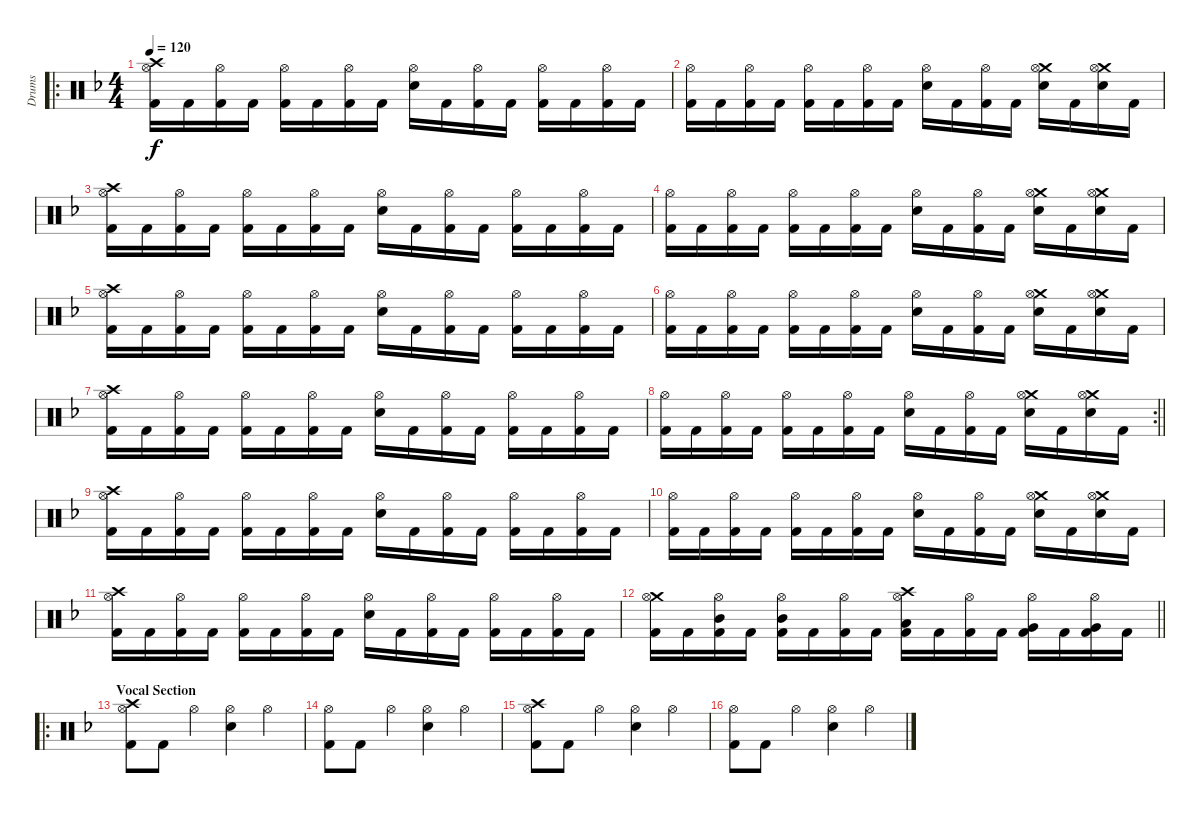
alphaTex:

\track ("Drums" "Drums") {instrument percussion}
\staff {score}
\articulation defaults
\ro
\ts (4 4)
\tempo 120
\clef neutral
\ks dminor
("Crash high (hit)" "Hi-Hat (open)" "Kick (hit) 2").16{dy f} "Kick (hit) 2".16 ("Hi-Hat (open)" "Kick (hit) 2").16 "Kick (hit) 2".16 ("Hi-Hat (open)" "Kick (hit) 2").16 "Kick (hit) 2".16 ("Hi-Hat (open)" "Kick (hit) 2").16 "Kick (hit) 2".16 ("Hi-Hat (open)" "Snare (hit) 2").16 "Kick (hit) 2".16 ("Hi-Hat (open)" "Kick (hit) 2").16 "Kick (hit) 2".16 ("Hi-Hat (open)" "Kick (hit) 2").16 "Kick (hit) 2".16 ("Hi-Hat (open)" "Kick (hit) 2").16 "Kick (hit) 2".16 |
("Hi-Hat (open)" "Kick (hit) 2").16 "Kick (hit) 2".16 ("Hi-Hat (open)" "Kick (hit) 2").16 "Kick (hit) 2".16 ("Hi-Hat (open)" "Kick (hit) 2").16 "Kick (hit) 2".16 ("Hi-Hat (open)" "Kick (hit) 2").16 "Kick (hit) 2".16 ("Hi-Hat (open)" "Snare (hit) 2").16 "Kick (hit) 2".16 ("Hi-Hat (open)" "Kick (hit) 2").16 "Kick (hit) 2".16 ("Crash medium (hit)" "Hi-Hat (open)" "Snare (hit) 2").16 "Kick (hit) 2".16 ("Crash medium (hit)" "Hi-Hat (open)" "Snare (hit) 2").16 "Kick (hit) 2".16 |
("Crash high (hit)" "Hi-Hat (open)" "Kick (hit) 2").16 "Kick (hit) 2".16 ("Hi-Hat (open)" "Kick (hit) 2").16 "Kick (hit) 2".16 ("Hi-Hat (open)" "Kick (hit) 2").16 "Kick (hit) 2".16 ("Hi-Hat (open)" "Kick (hit) 2").16 "Kick (hit) 2".16 ("Hi-Hat (open)" "Snare (hit) 2").16 "Kick (hit) 2".16 ("Hi-Hat (open)" "Kick (hit) 2").16 "Kick (hit) 2".16 ("Hi-Hat (open)" "Kick (hit) 2").16 "Kick (hit) 2".16 ("Hi-Hat (open)" "Kick (hit) 2").16 "Kick (hit) 2".16 |
("Hi-Hat (open)" "Kick (hit) 2").16 "Kick (hit) 2".16 ("Hi-Hat (open)" "Kick (hit) 2").16 "Kick (hit) 2".16 ("Hi-Hat (open)" "Kick (hit) 2").16 "Kick (hit) 2".16 ("Hi-Hat (open)" "Kick (hit) 2").16 "Kick (hit) 2".16 ("Hi-Hat (open)" "Snare (hit) 2").16 "Kick (hit) 2".16 ("Hi-Hat (open)" "Kick (hit) 2").16 "Kick (hit) 2".16 ("Crash medium (hit)" "Hi-Hat (open)" "Snare (hit) 2").16 "Kick (hit) 2".16 ("Crash medium (hit)" "Hi-Hat (open)" "Snare (hit) 2").16 "Kick (hit) 2".16 |
("Crash high (hit)" "Hi-Hat (open)" "Kick (hit) 2").16 "Kick (hit) 2".16 ("Hi-Hat (open)" "Kick (hit) 2").16 "Kick (hit) 2".16 ("Hi-Hat (open)" "Kick (hit) 2").16 "Kick (hit) 2".16 ("Hi-Hat (open)" "Kick (hit) 2").16 "Kick (hit) 2".16 ("Hi-Hat (open)" "Snare (hit) 2").16 "Kick (hit) 2".16 ("Hi-Hat (open)" "Kick (hit) 2").16 "Kick (hit) 2".16 ("Hi-Hat (open)" "Kick (hit) 2").16 "Kick (hit) 2".16 ("Hi-Hat (open)" "Kick (hit) 2").16 "Kick (hit) 2".16 |
("Hi-Hat (open)" "Kick (hit) 2").16 "Kick (hit) 2".16 ("Hi-Hat (open)" "Kick (hit) 2").16 "Kick (hit) 2".16 ("Hi-Hat (open)" "Kick (hit) 2").16 "Kick (hit) 2".16 ("Hi-Hat (open)" "Kick (hit) 2").16 "Kick (hit) 2".16 ("Hi-Hat (open)" "Snare (hit) 2").16 "Kick (hit) 2".16 ("Hi-Hat (open)" "Kick (hit) 2").16 "Kick (hit) 2".16 ("Crash medium (hit)" "Hi-Hat (open)" "Snare (hit) 2").16 "Kick (hit) 2".16 ("Crash medium (hit)" "Hi-Hat (open)" "Snare (hit) 2").16 "Kick (hit) 2".16 |
("Crash high (hit)" "Hi-Hat (open)" "Kick (hit) 2").16 "Kick (hit) 2".16 ("Hi-Hat (open)" "Kick (hit) 2").16 "Kick (hit) 2".16 ("Hi-Hat (open)" "Kick (hit) 2").16 "Kick (hit) 2".16 ("Hi-Hat (open)" "Kick (hit) 2").16 "Kick (hit) 2".16 ("Hi-Hat (open)" "Snare (hit) 2").16 "Kick (hit) 2".16 ("Hi-Hat (open)" "Kick (hit) 2").16 "Kick (hit) 2".16 ("Hi-Hat (open)" "Kick (hit) 2").16 "Kick (hit) 2".16 ("Hi-Hat (open)" "Kick (hit) 2").16 "Kick (hit) 2".16 |
\rc 2
\barLineRight lightlight
("Hi-Hat (open)" "Kick (hit) 2").16 "Kick (hit) 2".16 ("Hi-Hat (open)" "Kick (hit) 2").16 "Kick (hit) 2".16 ("Hi-Hat (open)" "Kick (hit) 2").16 "Kick (hit) 2".16 ("Hi-Hat (open)" "Kick (hit) 2").16 "Kick (hit) 2".16 ("Hi-Hat (open)" "Snare (hit) 2").16 "Kick (hit) 2".16 ("Hi-Hat (open)" "Kick (hit) 2").16 "Kick (hit) 2".16 ("Crash medium (hit)" "Hi-Hat (open)" "Snare (hit) 2").16 "Kick (hit) 2".16 ("Crash medium (hit)" "Hi-Hat (open)" "Snare (hit) 2").16 "Kick (hit) 2".16 |
("Crash high (hit)" "Hi-Hat (open)" "Kick (hit) 2").16 "Kick (hit) 2".16 ("Hi-Hat (open)" "Kick (hit) 2").16 "Kick (hit) 2".16 ("Hi-Hat (open)" "Kick (hit) 2").16 "Kick (hit) 2".16 ("Hi-Hat (open)" "Kick (hit) 2").16 "Kick (hit) 2".16 ("Hi-Hat (open)" "Snare (hit) 2").16 "Kick (hit) 2".16 ("Hi-Hat (open)" "Kick (hit) 2").16 "Kick (hit) 2".16 ("Hi-Hat (open)" "Kick (hit) 2").16 "Kick (hit) 2".16 ("Hi-Hat (open)" "Kick (hit) 2").16 "Kick (hit) 2".16 |
("Hi-Hat (open)" "Kick (hit) 2").16 "Kick (hit) 2".16 ("Hi-Hat (open)" "Kick (hit) 2").16 "Kick (hit) 2".16 ("Hi-Hat (open)" "Kick (hit) 2").16 "Kick (hit) 2".16 ("Hi-Hat (open)" "Kick (hit) 2").16 "Kick (hit) 2".16 ("Hi-Hat (open)" "Snare (hit) 2").16 "Kick (hit) 2".16 ("Hi-Hat (open)" "Kick (hit) 2").16 "Kick (hit) 2".16 ("Crash medium (hit)" "Hi-Hat (open)" "Snare (hit) 2").16 "Kick (hit) 2".16 ("Crash medium (hit)" "Hi-Hat (open)" "Snare (hit) 2").16 "Kick (hit) 2".16 |
("Crash high (hit)" "Hi-Hat (open)" "Kick (hit) 2").16 "Kick (hit) 2".16 ("Hi-Hat (open)" "Kick (hit) 2").16 "Kick (hit) 2".16 ("Hi-Hat (open)" "Kick (hit) 2").16 "Kick (hit) 2".16 ("Hi-Hat (open)" "Kick (hit) 2").16 "Kick (hit) 2".16 ("Hi-Hat (open)" "Snare (hit) 2").16 "Kick (hit) 2".16 ("Hi-Hat (open)" "Kick (hit) 2").16 "Kick (hit) 2".16 ("Hi-Hat (open)" "Kick (hit) 2").16 "Kick (hit) 2".16 ("Hi-Hat (open)" "Kick (hit) 2").16 "Kick (hit) 2".16 |
\barLineRight lightlight
("Crash medium (hit)" "Hi-Hat (open)" "Kick (hit) 2").16 "Kick (hit) 2".16 ("Hi-Hat (open)" "Mid Tom (hit)" "Kick (hit) 2").16 "Kick (hit) 2".16 ("Hi-Hat (open)" "Mid Tom (hit)" "Kick (hit) 2").16 "Kick (hit) 2".16 ("Hi-Hat (open)" "Kick (hit) 2").16 "Kick (hit) 2".16 ("Crash high (hit)" "Hi-Hat (open)" "Low Tom (hit)" "Kick (hit) 2").16 "Kick (hit) 2".16 ("Hi-Hat (open)" "Kick (hit) 2").16 "Kick (hit) 2".16 ("Hi-Hat (open)" "Very Low Tom (hit)" "Kick (hit) 2").16 "Kick (hit) 2".16 ("Hi-Hat (open)" "Very Low Tom (hit)" "Kick (hit) 2").16 "Kick (hit) 2".16 |
\ro
\section ("" "Vocal Section")
("Crash high (hit)" "Hi-Hat (open)" "Kick (hit) 2").8 "Kick (hit) 2".8 "Hi-Hat (open)".4 ("Hi-Hat (open)" "Snare (hit) 2").4 "Hi-Hat (open)".4 |
("Hi-Hat (open)" "Kick (hit) 2").8 "Kick (hit) 2".8 "Hi-Hat (open)".4 ("Hi-Hat (open)" "Snare (hit) 2").4 "Hi-Hat (open)".4 |
("Crash high (hit)" "Hi-Hat (open)" "Kick (hit) 2").8 "Kick (hit) 2".8 "Hi-Hat (open)".4 ("Hi-Hat (open)" "Snare (hit) 2").4 "Hi-Hat (open)".4 |
("Hi-Hat (open)" "Kick (hit) 2").8 "Kick (hit) 2".8 "Hi-Hat (open)".4 ("Hi-Hat (open)" "Snare (hit) 2").4 "Hi-Hat (open)".4
